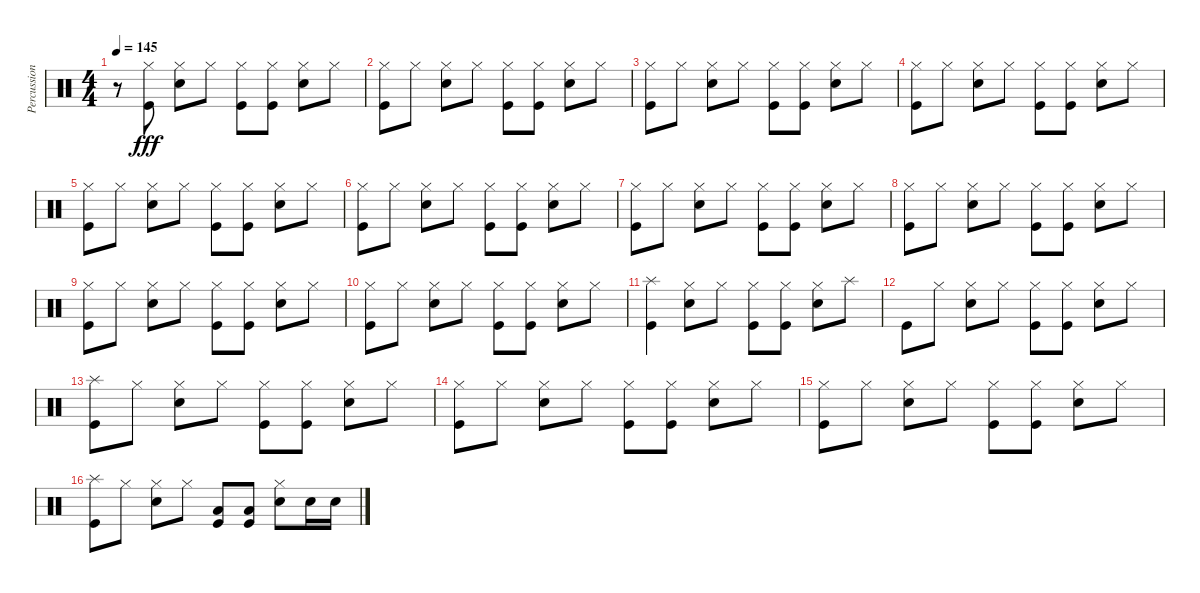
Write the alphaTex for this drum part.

\track ("Percussion" "Percussion") {instrument percussion}
\staff {score}
\articulation defaults
\ts (4 4)
\tempo 145
\clef neutral
\ks c
r.8{dy fff} ("Hi-Hat (closed)" "Kick (hit)").8 ("Hi-Hat (closed)" "Snare (hit) 2").8 "Hi-Hat (closed)".8 ("Hi-Hat (closed)" "Kick (hit)").8 ("Hi-Hat (closed)" "Kick (hit)").8 ("Hi-Hat (closed)" "Snare (hit) 2").8 "Hi-Hat (closed)".8 |
("Hi-Hat (closed)" "Kick (hit)").8 "Hi-Hat (closed)".8 ("Hi-Hat (closed)" "Snare (hit) 2").8 "Hi-Hat (closed)".8 ("Hi-Hat (closed)" "Kick (hit)").8 ("Hi-Hat (closed)" "Kick (hit)").8 ("Hi-Hat (closed)" "Snare (hit) 2").8 "Hi-Hat (closed)".8 |
("Hi-Hat (closed)" "Kick (hit)").8 "Hi-Hat (closed)".8 ("Hi-Hat (closed)" "Snare (hit) 2").8 "Hi-Hat (closed)".8 ("Hi-Hat (closed)" "Kick (hit)").8 ("Hi-Hat (closed)" "Kick (hit)").8 ("Hi-Hat (closed)" "Snare (hit) 2").8 "Hi-Hat (closed)".8 |
("Hi-Hat (closed)" "Kick (hit)").8 "Hi-Hat (closed)".8 ("Hi-Hat (closed)" "Snare (hit) 2").8 "Hi-Hat (closed)".8 ("Hi-Hat (closed)" "Kick (hit)").8 ("Hi-Hat (closed)" "Kick (hit)").8 ("Hi-Hat (closed)" "Snare (hit) 2").8 "Hi-Hat (closed)".8 |
("Hi-Hat (closed)" "Kick (hit)").8 "Hi-Hat (closed)".8 ("Hi-Hat (closed)" "Snare (hit) 2").8 "Hi-Hat (closed)".8 ("Hi-Hat (closed)" "Kick (hit)").8 ("Hi-Hat (closed)" "Kick (hit)").8 ("Hi-Hat (closed)" "Snare (hit) 2").8 "Hi-Hat (closed)".8 |
("Hi-Hat (closed)" "Kick (hit)").8 "Hi-Hat (closed)".8 ("Hi-Hat (closed)" "Snare (hit) 2").8 "Hi-Hat (closed)".8 ("Hi-Hat (closed)" "Kick (hit)").8 ("Hi-Hat (closed)" "Kick (hit)").8 ("Hi-Hat (closed)" "Snare (hit) 2").8 "Hi-Hat (closed)".8 |
("Hi-Hat (closed)" "Kick (hit)").8 "Hi-Hat (closed)".8 ("Hi-Hat (closed)" "Snare (hit) 2").8 "Hi-Hat (closed)".8 ("Hi-Hat (closed)" "Kick (hit)").8 ("Hi-Hat (closed)" "Kick (hit)").8 ("Hi-Hat (closed)" "Snare (hit) 2").8 "Hi-Hat (closed)".8 |
("Hi-Hat (closed)" "Kick (hit)").8 "Hi-Hat (closed)".8 ("Hi-Hat (closed)" "Snare (hit) 2").8 "Hi-Hat (closed)".8 ("Hi-Hat (closed)" "Kick (hit)").8 ("Hi-Hat (closed)" "Kick (hit)").8 ("Hi-Hat (closed)" "Snare (hit) 2").8 "Hi-Hat (closed)".8 |
("Hi-Hat (closed)" "Kick (hit)").8 "Hi-Hat (closed)".8 ("Hi-Hat (closed)" "Snare (hit) 2").8 "Hi-Hat (closed)".8 ("Hi-Hat (closed)" "Kick (hit)").8 ("Hi-Hat (closed)" "Kick (hit)").8 ("Hi-Hat (closed)" "Snare (hit) 2").8 "Hi-Hat (closed)".8 |
("Hi-Hat (closed)" "Kick (hit)").8 "Hi-Hat (closed)".8 ("Hi-Hat (closed)" "Snare (hit) 2").8 "Hi-Hat (closed)".8 ("Hi-Hat (closed)" "Kick (hit)").8 ("Hi-Hat (closed)" "Kick (hit)").8 ("Hi-Hat (closed)" "Snare (hit) 2").8 "Hi-Hat (closed)".8 |
("Splash (hit)" "Kick (hit)").4 ("Hi-Hat (closed)" "Snare (hit) 2").8 "Hi-Hat (closed)".8 ("Hi-Hat (closed)" "Kick (hit)").8 ("Hi-Hat (closed)" "Kick (hit)").8 ("Hi-Hat (closed)" "Snare (hit) 2").8 "Splash (hit)".8 |
"Kick (hit)".8 "Hi-Hat (closed)".8 ("Hi-Hat (closed)" "Snare (hit) 2").8 "Hi-Hat (closed)".8 ("Hi-Hat (closed)" "Kick (hit)").8 ("Hi-Hat (closed)" "Kick (hit)").8 ("Hi-Hat (closed)" "Snare (hit) 2").8 "Hi-Hat (closed)".8 |
("Splash (hit)" "Kick (hit)").8 "Hi-Hat (closed)".8 ("Hi-Hat (closed)" "Snare (hit) 2").8 "Hi-Hat (closed)".8 ("Hi-Hat (closed)" "Kick (hit)").8 ("Hi-Hat (closed)" "Kick (hit)").8 ("Hi-Hat (closed)" "Snare (hit) 2").8 "Hi-Hat (closed)".8 |
("Hi-Hat (closed)" "Kick (hit)").8 "Hi-Hat (closed)".8 ("Hi-Hat (closed)" "Snare (hit) 2").8 "Hi-Hat (closed)".8 ("Hi-Hat (closed)" "Kick (hit)").8 ("Hi-Hat (closed)" "Kick (hit)").8 ("Hi-Hat (closed)" "Snare (hit) 2").8 "Hi-Hat (closed)".8 |
("Hi-Hat (closed)" "Kick (hit)").8 "Hi-Hat (closed)".8 ("Hi-Hat (closed)" "Snare (hit) 2").8 "Hi-Hat (closed)".8 ("Hi-Hat (closed)" "Kick (hit)").8 ("Hi-Hat (closed)" "Kick (hit)").8 ("Hi-Hat (closed)" "Snare (hit) 2").8 "Hi-Hat (closed)".8 |
("Splash (hit)" "Kick (hit)").8 "Hi-Hat (closed)".8 ("Hi-Hat (closed)" "Snare (hit) 2").8 "Hi-Hat (closed)".8 ("Low Tom (hit)" "Kick (hit)").8 ("Low Tom (hit)" "Kick (hit)").8 ("Hi-Hat (closed)" "Snare (hit) 2").8 "Snare (hit) 2".16 "Snare (hit) 2".16
